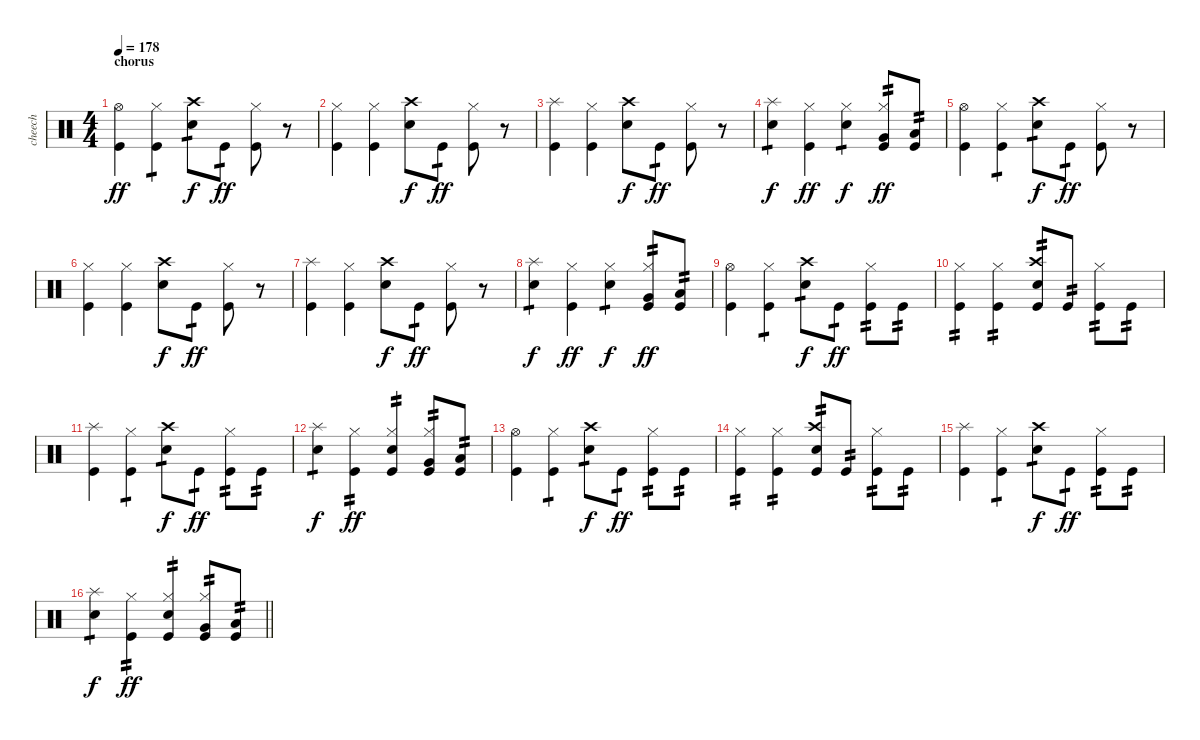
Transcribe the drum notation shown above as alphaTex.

\track ("cheech" "cheech") {solo instrument percussion}
\staff {score}
\articulation defaults
\ts (4 4)
\section ("" "chorus")
\tempo 178
\clef neutral
\ks c
("Hi-Hat (open)" "Kick (hit)").4{dy ff} ("Hi-Hat (closed)" "Kick (hit)").4{tp 1} ("Crash high (hit)" "Electric Snare (hit)").8{tp 1 dy f} "Kick (hit)".8{tp 1 dy ff} ("Hi-Hat (closed)" "Kick (hit)").8 r.8 |
("Hi-Hat (closed)" "Kick (hit)").4 ("Hi-Hat (closed)" "Kick (hit)").4 ("Crash high (hit)" "Electric Snare (hit)").8{dy f} "Kick (hit)".8{tp 1 dy ff} ("Hi-Hat (closed)" "Kick (hit)").8 r.8 |
("Splash (hit)" "Kick (hit)").4 ("Hi-Hat (closed)" "Kick (hit)").4 ("Crash high (hit)" "Electric Snare (hit)").8{dy f} "Kick (hit)".8{tp 1 dy ff} ("Hi-Hat (closed)" "Kick (hit)").8 r.8 |
("Splash (hit)" "Electric Snare (hit)").4{tp 1 dy f} ("Hi-Hat (closed)" "Kick (hit)").4{dy ff} ("Hi-Hat (closed)" "Electric Snare (hit)").4{tp 1 dy f} ("Hi-Hat (closed)" "Very Low Tom (hit)" "Kick (hit)").8{tp 2 dy ff} ("Low Floor Tom (hit)" "Kick (hit)").8{tp 2} |
("Hi-Hat (open)" "Kick (hit)").4 ("Hi-Hat (closed)" "Kick (hit)").4{tp 1} ("Crash high (hit)" "Electric Snare (hit)").8{tp 1 dy f} "Kick (hit)".8{tp 1 dy ff} ("Hi-Hat (closed)" "Kick (hit)").8 r.8 |
("Hi-Hat (closed)" "Kick (hit)").4 ("Hi-Hat (closed)" "Kick (hit)").4 ("Crash high (hit)" "Electric Snare (hit)").8{dy f} "Kick (hit)".8{tp 1 dy ff} ("Hi-Hat (closed)" "Kick (hit)").8 r.8 |
("Splash (hit)" "Kick (hit)").4 ("Hi-Hat (closed)" "Kick (hit)").4 ("Crash high (hit)" "Electric Snare (hit)").8{dy f} "Kick (hit)".8{tp 1 dy ff} ("Hi-Hat (closed)" "Kick (hit)").8 r.8 |
("Splash (hit)" "Electric Snare (hit)").4{tp 1 dy f} ("Hi-Hat (closed)" "Kick (hit)").4{dy ff} ("Hi-Hat (closed)" "Electric Snare (hit)").4{tp 1 dy f} ("Hi-Hat (closed)" "Very Low Tom (hit)" "Kick (hit)").8{tp 2 dy ff} ("Low Floor Tom (hit)" "Kick (hit)").8{tp 2} |
("Hi-Hat (open)" "Kick (hit)").4 ("Hi-Hat (closed)" "Kick (hit)").4{tp 1} ("Crash high (hit)" "Electric Snare (hit)").8{tp 1 dy f} "Kick (hit)".8{tp 1 dy ff} ("Hi-Hat (closed)" "Kick (hit)").8{tp 2} "Kick (hit)".8{tp 2} |
("Hi-Hat (closed)" "Kick (hit)").4{tp 2} ("Hi-Hat (closed)" "Kick (hit)").4{tp 2} ("Crash high (hit)" "Electric Snare (hit)" "Kick (hit)").8{tp 2} "Kick (hit)".8{tp 2} ("Hi-Hat (closed)" "Kick (hit)").8{tp 2} "Kick (hit)".8{tp 2} |
("Splash (hit)" "Kick (hit)").4 ("Hi-Hat (closed)" "Kick (hit)").4{tp 1} ("Crash high (hit)" "Electric Snare (hit)").8{tp 1 dy f} "Kick (hit)".8{tp 1 dy ff} ("Hi-Hat (closed)" "Kick (hit)").8{tp 2} "Kick (hit)".8{tp 2} |
("Splash (hit)" "Electric Snare (hit)").4{tp 1 dy f} ("Hi-Hat (closed)" "Kick (hit)").4{tp 2 dy ff} ("Hi-Hat (closed)" "Electric Snare (hit)" "Kick (hit)").4{tp 2} ("Hi-Hat (closed)" "Very Low Tom (hit)" "Kick (hit)").8{tp 2} ("Low Floor Tom (hit)" "Kick (hit)").8{tp 2} |
("Hi-Hat (open)" "Kick (hit)").4 ("Hi-Hat (closed)" "Kick (hit)").4{tp 1} ("Crash high (hit)" "Electric Snare (hit)").8{tp 1 dy f} "Kick (hit)".8{tp 1 dy ff} ("Hi-Hat (closed)" "Kick (hit)").8{tp 2} "Kick (hit)".8{tp 2} |
("Hi-Hat (closed)" "Kick (hit)").4{tp 2} ("Hi-Hat (closed)" "Kick (hit)").4{tp 2} ("Crash high (hit)" "Electric Snare (hit)" "Kick (hit)").8{tp 2} "Kick (hit)".8{tp 2} ("Hi-Hat (closed)" "Kick (hit)").8{tp 2} "Kick (hit)".8{tp 2} |
("Splash (hit)" "Kick (hit)").4 ("Hi-Hat (closed)" "Kick (hit)").4{tp 1} ("Crash high (hit)" "Electric Snare (hit)").8{tp 1 dy f} "Kick (hit)".8{tp 1 dy ff} ("Hi-Hat (closed)" "Kick (hit)").8{tp 2} "Kick (hit)".8{tp 2} |
\barLineRight lightlight
("Splash (hit)" "Electric Snare (hit)").4{tp 1 dy f} ("Hi-Hat (closed)" "Kick (hit)").4{tp 2 dy ff} ("Hi-Hat (closed)" "Electric Snare (hit)" "Kick (hit)").4{tp 2} ("Hi-Hat (closed)" "Very Low Tom (hit)" "Kick (hit)").8{tp 2} ("Low Floor Tom (hit)" "Kick (hit)").8{tp 2}
